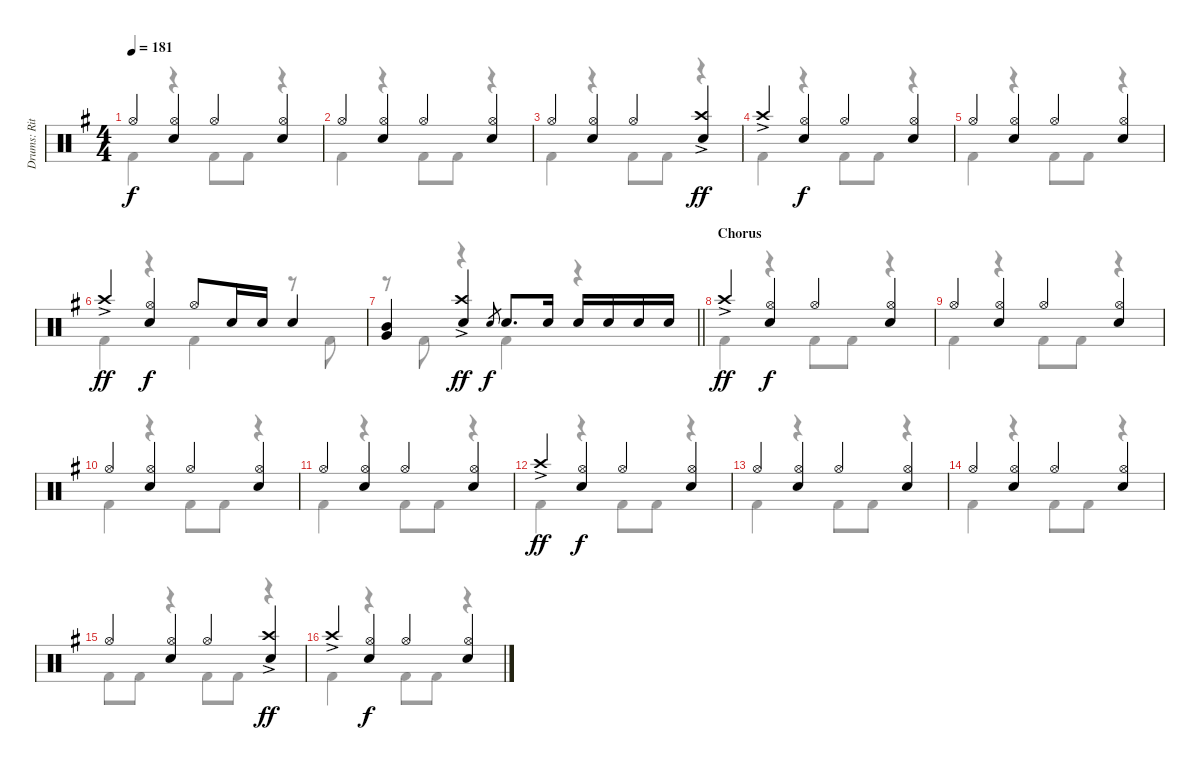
\track ("Drums: Ritsu Tianaka" "Drums: Rit") {instrument percussion}
\staff {score}
\articulation defaults
\voice
\ts (4 4)
\tempo 181
\clef neutral
\ks g "Hi-Hat (open)".4{dy f}
("Hi-Hat (open)" "Snare (hit) 2").4 "Hi-Hat (open)".4 ("Hi-Hat (open)" "Snare (hit) 2").4 |
"Hi-Hat (open)".4 ("Hi-Hat (open)" "Snare (hit) 2").4 "Hi-Hat (open)".4 ("Hi-Hat (open)" "Snare (hit) 2").4 |
"Hi-Hat (open)".4 ("Hi-Hat (open)" "Snare (hit) 2").4 "Hi-Hat (open)".4 ("Crash high (hit)"{ac} "Snare (hit) 2").4{dy ff} |
"Crash high (hit)"{ac}.4 ("Hi-Hat (open)" "Snare (hit) 2").4{dy f} "Hi-Hat (open)".4 ("Hi-Hat (open)" "Snare (hit) 2").4 |
"Hi-Hat (open)".4 ("Hi-Hat (open)" "Snare (hit) 2").4 "Hi-Hat (open)".4 ("Hi-Hat (open)" "Snare (hit) 2").4 |
"Crash high (hit)"{ac}.4{dy ff} ("Hi-Hat (open)" "Snare (hit) 2").4{dy f} "Hi-Hat (open)".8 "Snare (hit) 2".16 "Snare (hit) 2".16 "Snare (hit) 2".4 |
\barLineRight lightlight
("Mid Tom (hit)" "Very Low Tom (hit)").4 ("Crash high (hit)"{ac} "Snare (hit) 2").4{dy ff} "Snare (hit) 2".8{gr dy f} "Snare (hit) 2".8{d} "Snare (hit) 2".16 "Snare (hit) 2".16 "Snare (hit) 2".16 "Snare (hit) 2".16 "Snare (hit) 2".16 |
\section ("" "Chorus")
"Crash high (hit)"{ac}.4{dy ff} ("Hi-Hat (open)" "Snare (hit) 2").4{dy f} "Hi-Hat (open)".4 ("Hi-Hat (open)" "Snare (hit) 2").4 |
"Hi-Hat (open)".4 ("Hi-Hat (open)" "Snare (hit) 2").4 "Hi-Hat (open)".4 ("Hi-Hat (open)" "Snare (hit) 2").4 |
"Hi-Hat (open)".4 ("Hi-Hat (open)" "Snare (hit) 2").4 "Hi-Hat (open)".4 ("Hi-Hat (open)" "Snare (hit) 2").4 |
"Hi-Hat (open)".4 ("Hi-Hat (open)" "Snare (hit) 2").4 "Hi-Hat (open)".4 ("Hi-Hat (open)" "Snare (hit) 2").4 |
"Crash high (hit)"{ac}.4{dy ff} ("Hi-Hat (open)" "Snare (hit) 2").4{dy f} "Hi-Hat (open)".4 ("Hi-Hat (open)" "Snare (hit) 2").4 |
"Hi-Hat (open)".4 ("Hi-Hat (open)" "Snare (hit) 2").4 "Hi-Hat (open)".4 ("Hi-Hat (open)" "Snare (hit) 2").4 |
"Hi-Hat (open)".4 ("Hi-Hat (open)" "Snare (hit) 2").4 "Hi-Hat (open)".4 ("Hi-Hat (open)" "Snare (hit) 2").4 |
"Hi-Hat (open)".4 ("Hi-Hat (open)" "Snare (hit) 2").4 "Hi-Hat (open)".4 ("Crash high (hit)"{ac} "Snare (hit) 2").4{dy ff} |
"Crash high (hit)"{ac}.4 ("Hi-Hat (open)" "Snare (hit) 2").4{dy f} "Hi-Hat (open)".4 ("Hi-Hat (open)" "Snare (hit) 2").4
\voice
\clef neutral
\ottava regular
\simile none
\ks g "Kick (hit) 2".4{dy f}
r.4 "Kick (hit) 2".8 "Kick (hit) 2".8 r.4 |
"Kick (hit) 2".4 r.4 "Kick (hit) 2".8 "Kick (hit) 2".8 r.4 |
"Kick (hit) 2".4 r.4 "Kick (hit) 2".8 "Kick (hit) 2".8 r.4 |
"Kick (hit) 2".4 r.4 "Kick (hit) 2".8 "Kick (hit) 2".8 r.4 |
"Kick (hit) 2".4 r.4 "Kick (hit) 2".8 "Kick (hit) 2".8 r.4 |
"Kick (hit) 2".4 r.4 "Kick (hit) 2".4 r.8 "Kick (hit) 2".8 |
\barLineRight lightlight
r.8 "Kick (hit) 2".8 r.4 "Kick (hit) 2".4 r.4 |
"Kick (hit) 2".4 r.4 "Kick (hit) 2".8 "Kick (hit) 2".8 r.4 |
"Kick (hit) 2".4 r.4 "Kick (hit) 2".8 "Kick (hit) 2".8 r.4 |
"Kick (hit) 2".4 r.4 "Kick (hit) 2".8 "Kick (hit) 2".8 r.4 |
"Kick (hit) 2".4 r.4 "Kick (hit) 2".8 "Kick (hit) 2".8 r.4 |
"Kick (hit) 2".4 r.4 "Kick (hit) 2".8 "Kick (hit) 2".8 r.4 |
"Kick (hit) 2".4 r.4 "Kick (hit) 2".8 "Kick (hit) 2".8 r.4 |
"Kick (hit) 2".4 r.4 "Kick (hit) 2".8 "Kick (hit) 2".8 r.4 |
"Kick (hit) 2".8 "Kick (hit) 2".8 r.4 "Kick (hit) 2".8 "Kick (hit) 2".8 r.4 |
"Kick (hit) 2".4 r.4 "Kick (hit) 2".8 "Kick (hit) 2".8 r.4
